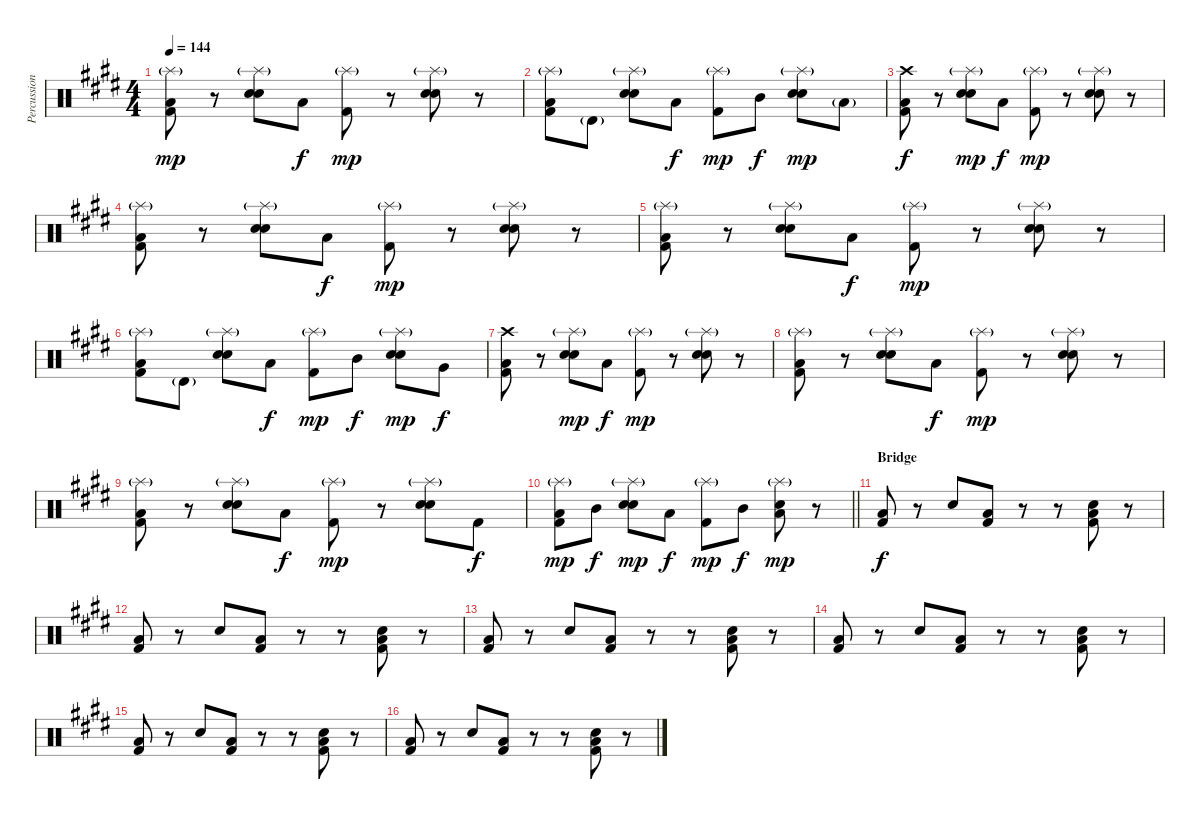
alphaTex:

\track ("Percussion" "Percussion") {instrument percussion}
\staff {score}
\articulation defaults
\ts (4 4)
\tempo 144
\clef neutral
\ks e
("Splash (hit)"{g} "Low Floor Tom (hit)" "Kick (hit) 2").8{dy mp} r.8 ("Splash (hit)"{g} "Hand Clap (hit)" "Electric Snare (hit)").8 "Low Floor Tom (hit)".8{dy f} ("Splash (hit)"{g} "Kick (hit) 2").8{dy mp} r.8 ("Splash (hit)"{g} "Hand Clap (hit)" "Electric Snare (hit)").8 r.8 |
("Splash (hit)"{g} "Low Floor Tom (hit)" "Kick (hit) 2").8 "Timbale high (hit)"{g}.8 ("Splash (hit)"{g} "Hand Clap (hit)" "Electric Snare (hit)").8 "Low Floor Tom (hit)".8{dy f} ("Splash (hit)"{g} "Kick (hit) 2").8{dy mp} "Mid Tom (hit)".8{dy f} ("Splash (hit)"{g} "Hand Clap (hit)" "Electric Snare (hit)").8{dy mp} "Low Tom (hit)"{g}.8 |
("Crash high (hit)" "Low Floor Tom (hit)" "Kick (hit) 2").8{dy f} r.8 ("Splash (hit)"{g} "Hand Clap (hit)" "Electric Snare (hit)").8{dy mp} "Low Floor Tom (hit)".8{dy f} ("Splash (hit)"{g} "Kick (hit) 2").8{dy mp} r.8 ("Splash (hit)"{g} "Hand Clap (hit)" "Electric Snare (hit)").8 r.8 |
("Splash (hit)"{g} "Low Floor Tom (hit)" "Kick (hit) 2").8 r.8 ("Splash (hit)"{g} "Hand Clap (hit)" "Electric Snare (hit)").8 "Low Floor Tom (hit)".8{dy f} ("Splash (hit)"{g} "Kick (hit) 2").8{dy mp} r.8 ("Splash (hit)"{g} "Hand Clap (hit)" "Electric Snare (hit)").8 r.8 |
("Splash (hit)"{g} "Low Floor Tom (hit)" "Kick (hit) 2").8 r.8 ("Splash (hit)"{g} "Hand Clap (hit)" "Electric Snare (hit)").8 "Low Floor Tom (hit)".8{dy f} ("Splash (hit)"{g} "Kick (hit) 2").8{dy mp} r.8 ("Splash (hit)"{g} "Hand Clap (hit)" "Electric Snare (hit)").8 r.8 |
("Splash (hit)"{g} "Low Floor Tom (hit)" "Kick (hit) 2").8 "Timbale high (hit)"{g}.8 ("Splash (hit)"{g} "Hand Clap (hit)" "Electric Snare (hit)").8 "Low Floor Tom (hit)".8{dy f} ("Splash (hit)"{g} "Kick (hit) 2").8{dy mp} "Mid Tom (hit)".8{dy f} ("Splash (hit)"{g} "Hand Clap (hit)" "Electric Snare (hit)").8{dy mp} "Very Low Tom (hit)".8{dy f} |
("Crash high (hit)" "Low Floor Tom (hit)" "Kick (hit) 2").8 r.8 ("Splash (hit)"{g} "Hand Clap (hit)" "Electric Snare (hit)").8{dy mp} "Low Floor Tom (hit)".8{dy f} ("Splash (hit)"{g} "Kick (hit) 2").8{dy mp} r.8 ("Splash (hit)"{g} "Hand Clap (hit)" "Electric Snare (hit)").8 r.8 |
("Splash (hit)"{g} "Low Floor Tom (hit)" "Kick (hit) 2").8 r.8 ("Splash (hit)"{g} "Hand Clap (hit)" "Electric Snare (hit)").8 "Low Floor Tom (hit)".8{dy f} ("Splash (hit)"{g} "Kick (hit) 2").8{dy mp} r.8 ("Splash (hit)"{g} "Hand Clap (hit)" "Electric Snare (hit)").8 r.8 |
("Splash (hit)"{g} "Low Floor Tom (hit)" "Kick (hit) 2").8 r.8 ("Splash (hit)"{g} "Hand Clap (hit)" "Electric Snare (hit)").8 "Low Floor Tom (hit)".8{dy f} ("Splash (hit)"{g} "Kick (hit) 2").8{dy mp} r.8 ("Splash (hit)"{g} "Hand Clap (hit)" "Electric Snare (hit)").8 "Kick (hit) 2".8{dy f} |
\barLineRight lightlight
("Splash (hit)"{g} "Low Floor Tom (hit)" "Kick (hit) 2").8{dy mp} "Mid Tom (hit)".8{dy f} ("Splash (hit)"{g} "Hand Clap (hit)" "Electric Snare (hit)").8{dy mp} "Low Floor Tom (hit)".8{dy f} ("Splash (hit)"{g} "Kick (hit) 2").8{dy mp} "Mid Tom (hit)".8{dy f} ("Splash (hit)"{g} "Hand Clap (hit)" "Low Tom (hit)").8{dy mp} r.8 |
\section ("" "Bridge")
("Low Floor Tom (hit)" "Kick (hit) 2").8{dy f} r.8 "Hand Clap (hit)".8 ("Low Floor Tom (hit)" "Kick (hit) 2").8 r.8 r.8 ("Hand Clap (hit)" "Low Floor Tom (hit)" "Kick (hit) 2").8 r.8 |
("Low Floor Tom (hit)" "Kick (hit) 2").8 r.8 "Hand Clap (hit)".8 ("Low Floor Tom (hit)" "Kick (hit) 2").8 r.8 r.8 ("Hand Clap (hit)" "Low Floor Tom (hit)" "Kick (hit) 2").8 r.8 |
("Low Floor Tom (hit)" "Kick (hit) 2").8 r.8 "Hand Clap (hit)".8 ("Low Floor Tom (hit)" "Kick (hit) 2").8 r.8 r.8 ("Hand Clap (hit)" "Low Floor Tom (hit)" "Kick (hit) 2").8 r.8 |
("Low Floor Tom (hit)" "Kick (hit) 2").8 r.8 "Hand Clap (hit)".8 ("Low Floor Tom (hit)" "Kick (hit) 2").8 r.8 r.8 ("Hand Clap (hit)" "Low Floor Tom (hit)" "Kick (hit) 2").8 r.8 |
("Low Floor Tom (hit)" "Kick (hit) 2").8 r.8 "Hand Clap (hit)".8 ("Low Floor Tom (hit)" "Kick (hit) 2").8 r.8 r.8 ("Hand Clap (hit)" "Low Floor Tom (hit)" "Kick (hit) 2").8 r.8 |
("Low Floor Tom (hit)" "Kick (hit) 2").8 r.8 "Hand Clap (hit)".8 ("Low Floor Tom (hit)" "Kick (hit) 2").8 r.8 r.8 ("Hand Clap (hit)" "Low Floor Tom (hit)" "Kick (hit) 2").8 r.8
